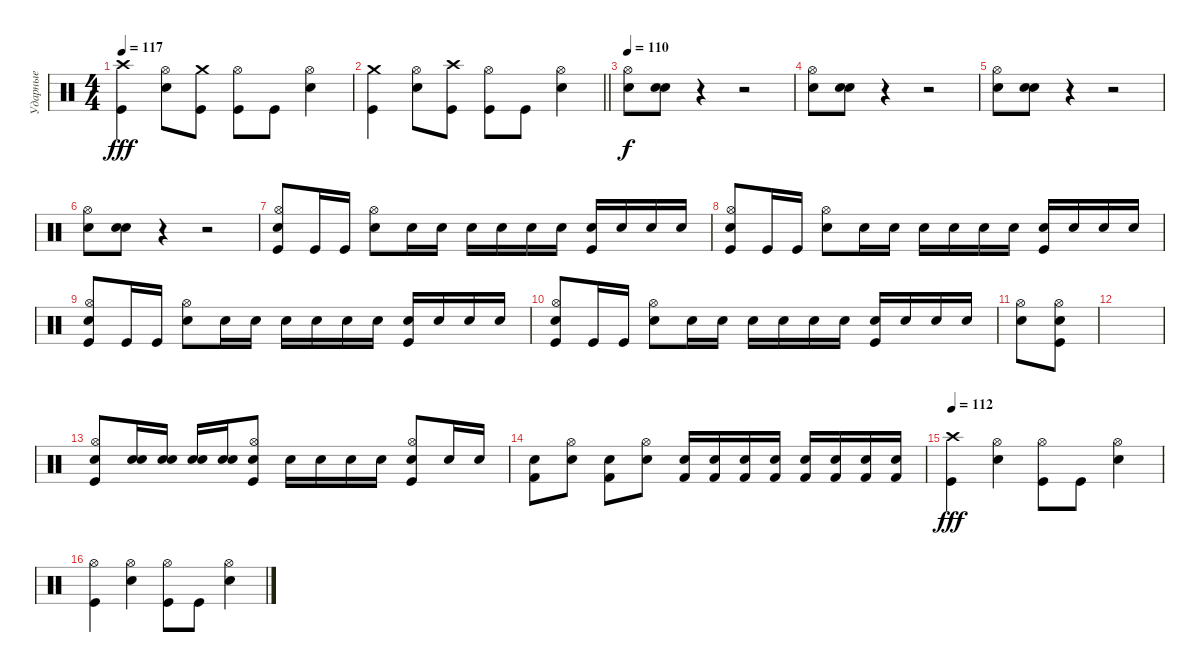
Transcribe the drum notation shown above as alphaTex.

\track ("Ударные" "Ударные") {instrument percussion}
\staff {score}
\articulation defaults
\ts (4 4)
\tempo 117
\clef neutral
\ks c
("Crash high (hit)" "Kick (hit)").4{dy fff} ("Hi-Hat (open)" "Electric Snare (hit)").8 ("Crash medium (hit)" "Kick (hit)").8 ("Hi-Hat (open)" "Kick (hit)").8 "Kick (hit)".8 ("Hi-Hat (open)" "Electric Snare (hit)").4 |
\barLineRight lightlight
("Crash medium (hit)" "Kick (hit)").4 ("Hi-Hat (open)" "Electric Snare (hit)").8 ("Crash high (hit)" "Kick (hit)").8 ("Hi-Hat (open)" "Kick (hit)").8 "Kick (hit)".8 ("Hi-Hat (open)" "Electric Snare (hit)").4 |
\section ("" "")
\tempo 110
("Hi-Hat (open)" "Snare (hit) 2").8{dy f} ("Snare (hit) 2" "Snare (hit) 2").8 r.4 r.2 |
("Hi-Hat (open)" "Snare (hit) 2").8 ("Snare (hit) 2" "Snare (hit) 2").8 r.4 r.2 |
("Hi-Hat (open)" "Snare (hit) 2").8 ("Snare (hit) 2" "Snare (hit) 2").8 r.4 r.2 |
("Hi-Hat (open)" "Snare (hit) 2").8 ("Snare (hit) 2" "Snare (hit) 2").8 r.4 r.2 |
("Kick (hit)" "Snare (hit) 2" "Hi-Hat (open)").8 "Kick (hit)".16 "Kick (hit)".16 ("Hi-Hat (open)" "Snare (hit) 2").8 "Snare (hit) 2".16 "Snare (hit) 2".16 "Snare (hit) 2".16 "Snare (hit) 2".16 "Snare (hit) 2".16 "Snare (hit) 2".16 ("Kick (hit)" "Snare (hit) 2").16 "Snare (hit) 2".16 "Snare (hit) 2".16 "Snare (hit) 2".16 |
("Kick (hit)" "Snare (hit) 2" "Hi-Hat (open)").8 "Kick (hit)".16 "Kick (hit)".16 ("Hi-Hat (open)" "Snare (hit) 2").8 "Snare (hit) 2".16 "Snare (hit) 2".16 "Snare (hit) 2".16 "Snare (hit) 2".16 "Snare (hit) 2".16 "Snare (hit) 2".16 ("Kick (hit)" "Snare (hit) 2").16 "Snare (hit) 2".16 "Snare (hit) 2".16 "Snare (hit) 2".16 |
("Kick (hit)" "Snare (hit) 2" "Hi-Hat (open)").8 "Kick (hit)".16 "Kick (hit)".16 ("Hi-Hat (open)" "Snare (hit) 2").8 "Snare (hit) 2".16 "Snare (hit) 2".16 "Snare (hit) 2".16 "Snare (hit) 2".16 "Snare (hit) 2".16 "Snare (hit) 2".16 ("Kick (hit)" "Snare (hit) 2").16 "Snare (hit) 2".16 "Snare (hit) 2".16 "Snare (hit) 2".16 |
("Kick (hit)" "Snare (hit) 2" "Hi-Hat (open)").8 "Kick (hit)".16 "Kick (hit)".16 ("Hi-Hat (open)" "Snare (hit) 2").8 "Snare (hit) 2".16 "Snare (hit) 2".16 "Snare (hit) 2".16 "Snare (hit) 2".16 "Snare (hit) 2".16 "Snare (hit) 2".16 ("Kick (hit)" "Snare (hit) 2").16 "Snare (hit) 2".16 "Snare (hit) 2".16 "Snare (hit) 2".16 |
("Hi-Hat (open)" "Snare (hit) 2").8 ("Snare (hit) 2" "Kick (hit)" "Hi-Hat (open)").8 |
|
("Snare (hit) 2" "Kick (hit)" "Hi-Hat (open)").8 ("Snare (hit) 2" "Snare (hit) 2").16 ("Snare (hit) 2" "Snare (hit) 2").16 ("Snare (hit) 2" "Snare (hit) 2").16 ("Snare (hit) 2" "Snare (hit) 2").16 ("Snare (hit) 2" "Kick (hit)" "Hi-Hat (open)").8 "Snare (hit) 2".16 "Snare (hit) 2".16 "Snare (hit) 2".16 "Snare (hit) 2".16 ("Snare (hit) 2" "Kick (hit)" "Hi-Hat (open)").8 "Snare (hit) 2".16 "Snare (hit) 2".16 |
("Electric Snare (hit)" "Kick (hit) 2").8 ("Electric Snare (hit)" "Hi-Hat (open)").8 ("Electric Snare (hit)" "Kick (hit) 2").8 ("Electric Snare (hit)" "Hi-Hat (open)").8 ("Electric Snare (hit)" "Kick (hit) 2").16 ("Electric Snare (hit)" "Kick (hit) 2").16 ("Kick (hit) 2" "Electric Snare (hit)").16 ("Electric Snare (hit)" "Kick (hit) 2").16 ("Kick (hit) 2" "Electric Snare (hit)").16 ("Electric Snare (hit)" "Kick (hit) 2").16 ("Kick (hit) 2" "Electric Snare (hit)").16 ("Electric Snare (hit)" "Kick (hit) 2").16 |
\tempo 112
("Crash high (hit)" "Kick (hit)").4{dy fff} ("Hi-Hat (open)" "Electric Snare (hit)").4 ("Hi-Hat (open)" "Kick (hit)").8 "Kick (hit)".8 ("Hi-Hat (open)" "Electric Snare (hit)").4 |
("Hi-Hat (open)" "Kick (hit)").4 ("Hi-Hat (open)" "Electric Snare (hit)").4 ("Hi-Hat (open)" "Kick (hit)").8 "Kick (hit)".8 ("Hi-Hat (open)" "Electric Snare (hit)").4
